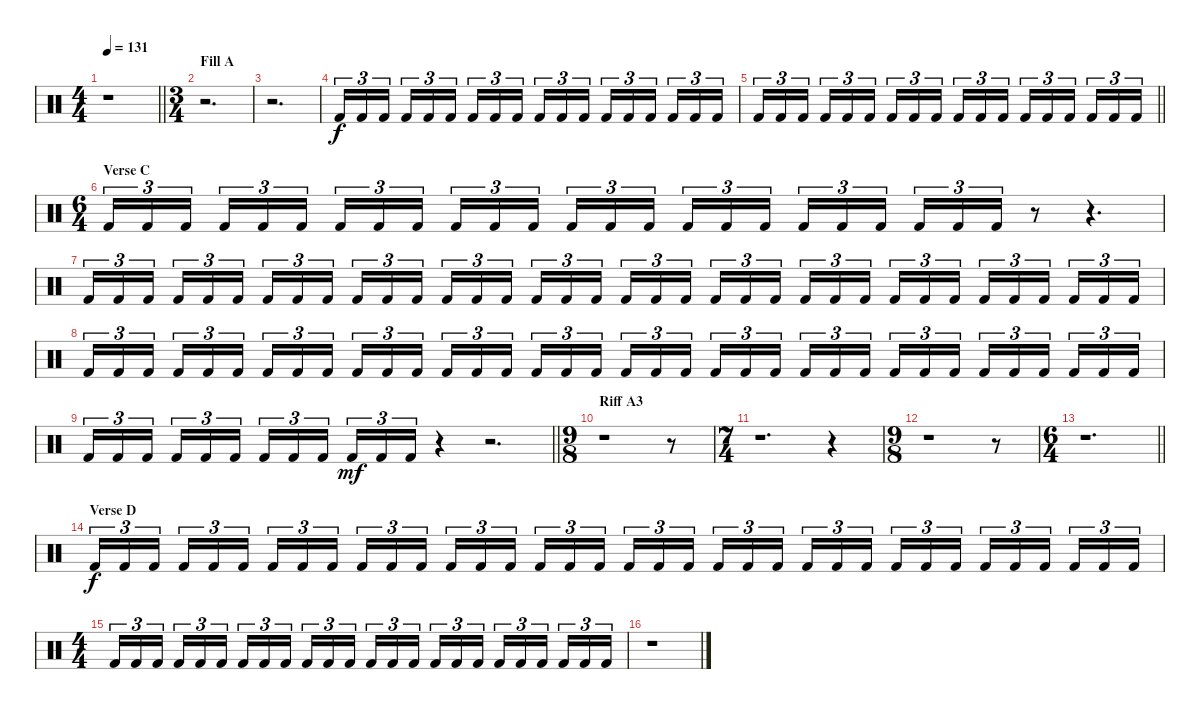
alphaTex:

\track "" {instrument percussion}
\staff {score}
\articulation defaults
\ts (4 4)
\tempo 131
\clef neutral
\barLineRight lightlight
\ks c
r.1{dy f} |
\ts (3 4)
\section ("" "Fill A")
r.2{d} |
r.2{d} |
"Kick (hit) 2".16{tu (3 2)} "Kick (hit) 2".16{tu (3 2)} "Kick (hit) 2".16{tu (3 2) beam splitsecondary} "Kick (hit) 2".16{tu (3 2)} "Kick (hit) 2".16{tu (3 2)} "Kick (hit) 2".16{tu (3 2)} "Kick (hit) 2".16{tu (3 2)} "Kick (hit) 2".16{tu (3 2)} "Kick (hit) 2".16{tu (3 2) beam splitsecondary} "Kick (hit) 2".16{tu (3 2)} "Kick (hit) 2".16{tu (3 2)} "Kick (hit) 2".16{tu (3 2)} "Kick (hit) 2".16{tu (3 2)} "Kick (hit) 2".16{tu (3 2)} "Kick (hit) 2".16{tu (3 2) beam splitsecondary} "Kick (hit) 2".16{tu (3 2)} "Kick (hit) 2".16{tu (3 2)} "Kick (hit) 2".16{tu (3 2)} |
\barLineRight lightlight "Kick (hit) 2".16{tu (3 2)} "Kick (hit) 2".16{tu (3 2)} "Kick (hit) 2".16{tu (3 2) beam splitsecondary} "Kick (hit) 2".16{tu (3 2)} "Kick (hit) 2".16{tu (3 2)} "Kick (hit) 2".16{tu (3 2)} "Kick (hit) 2".16{tu (3 2)} "Kick (hit) 2".16{tu (3 2)} "Kick (hit) 2".16{tu (3 2) beam splitsecondary} "Kick (hit) 2".16{tu (3 2)} "Kick (hit) 2".16{tu (3 2)} "Kick (hit) 2".16{tu (3 2)} "Kick (hit) 2".16{tu (3 2)} "Kick (hit) 2".16{tu (3 2)} "Kick (hit) 2".16{tu (3 2) beam splitsecondary} "Kick (hit) 2".16{tu (3 2)} "Kick (hit) 2".16{tu (3 2)} "Kick (hit) 2".16{tu (3 2)}
|
\ts (6 4)
\section ("" "Verse C")
"Kick (hit) 2".16{tu (3 2)} "Kick (hit) 2".16{tu (3 2)} "Kick (hit) 2".16{tu (3 2) beam splitsecondary} "Kick (hit) 2".16{tu (3 2)} "Kick (hit) 2".16{tu (3 2)} "Kick (hit) 2".16{tu (3 2) beam splitsecondary} "Kick (hit) 2".16{tu (3 2)} "Kick (hit) 2".16{tu (3 2)} "Kick (hit) 2".16{tu (3 2) beam splitsecondary} "Kick (hit) 2".16{tu (3 2)} "Kick (hit) 2".16{tu (3 2)} "Kick (hit) 2".16{tu (3 2) beam splitsecondary} "Kick (hit) 2".16{tu (3 2)} "Kick (hit) 2".16{tu (3 2)} "Kick (hit) 2".16{tu (3 2) beam splitsecondary} "Kick (hit) 2".16{tu (3 2)} "Kick (hit) 2".16{tu (3 2)} "Kick (hit) 2".16{tu (3 2)} "Kick (hit) 2".16{tu (3 2)} "Kick (hit) 2".16{tu (3 2)} "Kick (hit) 2".16{tu (3 2) beam splitsecondary} "Kick (hit) 2".16{tu (3 2)} "Kick (hit) 2".16{tu (3 2)} "Kick (hit) 2".16{tu (3 2)} r.8 r.4{d} |
"Kick (hit) 2".16{tu (3 2)} "Kick (hit) 2".16{tu (3 2)} "Kick (hit) 2".16{tu (3 2) beam splitsecondary} "Kick (hit) 2".16{tu (3 2)} "Kick (hit) 2".16{tu (3 2)} "Kick (hit) 2".16{tu (3 2) beam splitsecondary} "Kick (hit) 2".16{tu (3 2)} "Kick (hit) 2".16{tu (3 2)} "Kick (hit) 2".16{tu (3 2) beam splitsecondary} "Kick (hit) 2".16{tu (3 2)} "Kick (hit) 2".16{tu (3 2)} "Kick (hit) 2".16{tu (3 2) beam splitsecondary} "Kick (hit) 2".16{tu (3 2)} "Kick (hit) 2".16{tu (3 2)} "Kick (hit) 2".16{tu (3 2) beam splitsecondary} "Kick (hit) 2".16{tu (3 2)} "Kick (hit) 2".16{tu (3 2)} "Kick (hit) 2".16{tu (3 2)} "Kick (hit) 2".16{tu (3 2)} "Kick (hit) 2".16{tu (3 2)} "Kick (hit) 2".16{tu (3 2) beam splitsecondary} "Kick (hit) 2".16{tu (3 2)} "Kick (hit) 2".16{tu (3 2)} "Kick (hit) 2".16{tu (3 2) beam splitsecondary} "Kick (hit) 2".16{tu (3 2)} "Kick (hit) 2".16{tu (3 2)} "Kick (hit) 2".16{tu (3 2) beam splitsecondary} "Kick (hit) 2".16{tu (3 2)} "Kick (hit) 2".16{tu (3 2)} "Kick (hit) 2".16{tu (3 2) beam splitsecondary} "Kick (hit) 2".16{tu (3 2)} "Kick (hit) 2".16{tu (3 2)} "Kick (hit) 2".16{tu (3 2) beam splitsecondary} "Kick (hit) 2".16{tu (3 2)} "Kick (hit) 2".16{tu (3 2)} "Kick (hit) 2".16{tu (3 2)} |
"Kick (hit) 2".16{tu (3 2)} "Kick (hit) 2".16{tu (3 2)} "Kick (hit) 2".16{tu (3 2) beam splitsecondary} "Kick (hit) 2".16{tu (3 2)} "Kick (hit) 2".16{tu (3 2)} "Kick (hit) 2".16{tu (3 2) beam splitsecondary} "Kick (hit) 2".16{tu (3 2)} "Kick (hit) 2".16{tu (3 2)} "Kick (hit) 2".16{tu (3 2) beam splitsecondary} "Kick (hit) 2".16{tu (3 2)} "Kick (hit) 2".16{tu (3 2)} "Kick (hit) 2".16{tu (3 2) beam splitsecondary} "Kick (hit) 2".16{tu (3 2)} "Kick (hit) 2".16{tu (3 2)} "Kick (hit) 2".16{tu (3 2) beam splitsecondary} "Kick (hit) 2".16{tu (3 2)} "Kick (hit) 2".16{tu (3 2)} "Kick (hit) 2".16{tu (3 2)} "Kick (hit) 2".16{tu (3 2)} "Kick (hit) 2".16{tu (3 2)} "Kick (hit) 2".16{tu (3 2) beam splitsecondary} "Kick (hit) 2".16{tu (3 2)} "Kick (hit) 2".16{tu (3 2)} "Kick (hit) 2".16{tu (3 2) beam splitsecondary} "Kick (hit) 2".16{tu (3 2)} "Kick (hit) 2".16{tu (3 2)} "Kick (hit) 2".16{tu (3 2) beam splitsecondary} "Kick (hit) 2".16{tu (3 2)} "Kick (hit) 2".16{tu (3 2)} "Kick (hit) 2".16{tu (3 2) beam splitsecondary} "Kick (hit) 2".16{tu (3 2)} "Kick (hit) 2".16{tu (3 2)} "Kick (hit) 2".16{tu (3 2) beam splitsecondary} "Kick (hit) 2".16{tu (3 2)} "Kick (hit) 2".16{tu (3 2)} "Kick (hit) 2".16{tu (3 2)} |
\barLineRight lightlight "Kick (hit) 2".16{tu (3 2)} "Kick (hit) 2".16{tu (3 2)} "Kick (hit) 2".16{tu (3 2) beam splitsecondary} "Kick (hit) 2".16{tu (3 2)} "Kick (hit) 2".16{tu (3 2)} "Kick (hit) 2".16{tu (3 2) beam splitsecondary} "Kick (hit) 2".16{tu (3 2)} "Kick (hit) 2".16{tu (3 2)} "Kick (hit) 2".16{tu (3 2) beam splitsecondary} "Kick (hit) 2".16{tu (3 2) dy mf} "Kick (hit) 2".16{tu (3 2)} "Kick (hit) 2".16{tu (3 2)}
r.4 r.2{d} |
\ts (9 8)
\section ("" "Riff A3")
r.1 r.8 |
\ts (7 4)
r.1{d} r.4 |
\ts (9 8)
r.1 r.8 |
\ts (6 4)
\barLineRight lightlight
r.1{d} |
\section ("" "Verse D")
"Kick (hit) 2".16{tu (3 2) dy f} "Kick (hit) 2".16{tu (3 2)} "Kick (hit) 2".16{tu (3 2) beam splitsecondary} "Kick (hit) 2".16{tu (3 2)} "Kick (hit) 2".16{tu (3 2)} "Kick (hit) 2".16{tu (3 2) beam splitsecondary} "Kick (hit) 2".16{tu (3 2)} "Kick (hit) 2".16{tu (3 2)} "Kick (hit) 2".16{tu (3 2) beam splitsecondary} "Kick (hit) 2".16{tu (3 2)} "Kick (hit) 2".16{tu (3 2)} "Kick (hit) 2".16{tu (3 2) beam splitsecondary} "Kick (hit) 2".16{tu (3 2)} "Kick (hit) 2".16{tu (3 2)} "Kick (hit) 2".16{tu (3 2) beam splitsecondary} "Kick (hit) 2".16{tu (3 2)} "Kick (hit) 2".16{tu (3 2)} "Kick (hit) 2".16{tu (3 2)} "Kick (hit) 2".16{tu (3 2)} "Kick (hit) 2".16{tu (3 2)} "Kick (hit) 2".16{tu (3 2) beam splitsecondary} "Kick (hit) 2".16{tu (3 2)} "Kick (hit) 2".16{tu (3 2)} "Kick (hit) 2".16{tu (3 2) beam splitsecondary} "Kick (hit) 2".16{tu (3 2)} "Kick (hit) 2".16{tu (3 2)} "Kick (hit) 2".16{tu (3 2) beam splitsecondary} "Kick (hit) 2".16{tu (3 2)} "Kick (hit) 2".16{tu (3 2)} "Kick (hit) 2".16{tu (3 2) beam splitsecondary} "Kick (hit) 2".16{tu (3 2)} "Kick (hit) 2".16{tu (3 2)} "Kick (hit) 2".16{tu (3 2) beam splitsecondary} "Kick (hit) 2".16{tu (3 2)} "Kick (hit) 2".16{tu (3 2)} "Kick (hit) 2".16{tu (3 2)} |
\ts (4 4)
"Kick (hit) 2".16{tu (3 2)} "Kick (hit) 2".16{tu (3 2)} "Kick (hit) 2".16{tu (3 2) beam splitsecondary} "Kick (hit) 2".16{tu (3 2)} "Kick (hit) 2".16{tu (3 2)} "Kick (hit) 2".16{tu (3 2)} "Kick (hit) 2".16{tu (3 2)} "Kick (hit) 2".16{tu (3 2)} "Kick (hit) 2".16{tu (3 2) beam splitsecondary} "Kick (hit) 2".16{tu (3 2)} "Kick (hit) 2".16{tu (3 2)} "Kick (hit) 2".16{tu (3 2)} "Kick (hit) 2".16{tu (3 2)} "Kick (hit) 2".16{tu (3 2)} "Kick (hit) 2".16{tu (3 2) beam splitsecondary} "Kick (hit) 2".16{tu (3 2)} "Kick (hit) 2".16{tu (3 2)} "Kick (hit) 2".16{tu (3 2)} "Kick (hit) 2".16{tu (3 2)} "Kick (hit) 2".16{tu (3 2)} "Kick (hit) 2".16{tu (3 2) beam splitsecondary} "Kick (hit) 2".16{tu (3 2)} "Kick (hit) 2".16{tu (3 2)} "Kick (hit) 2".16{tu (3 2)} |
r.1
